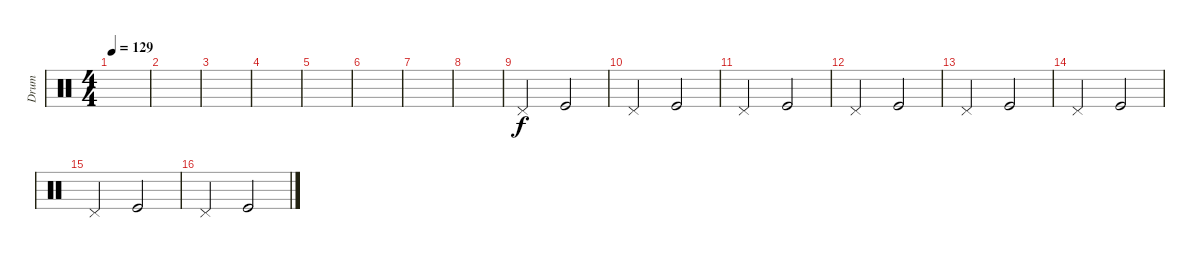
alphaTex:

\track ("Drum" "Drum") {instrument percussion}
\staff {score}
\articulation defaults
\ts (4 4)
\tempo 129
\clef neutral
\ks c
|
|
|
|
|
|
|
|
"Pedal Hi-Hat (hit)".2 "Kick (hit)".2 |
"Pedal Hi-Hat (hit)".2 "Kick (hit)".2 |
"Pedal Hi-Hat (hit)".2 "Kick (hit)".2 |
"Pedal Hi-Hat (hit)".2 "Kick (hit)".2 |
"Pedal Hi-Hat (hit)".2 "Kick (hit)".2 |
"Pedal Hi-Hat (hit)".2 "Kick (hit)".2 |
"Pedal Hi-Hat (hit)".2 "Kick (hit)".2 |
"Pedal Hi-Hat (hit)".2 "Kick (hit)".2
